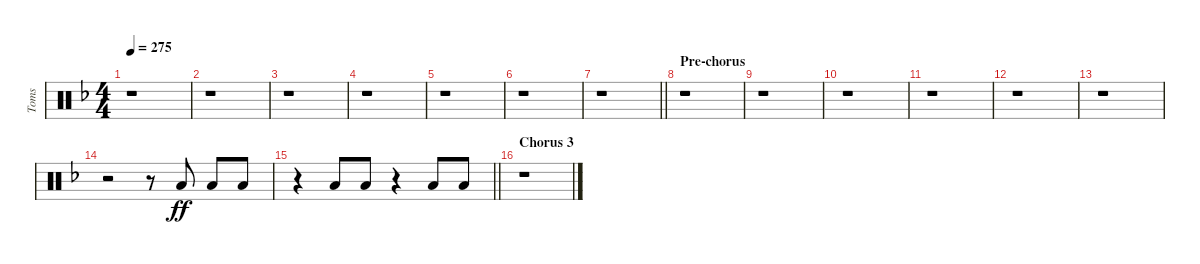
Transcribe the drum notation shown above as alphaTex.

\track ("Toms" "Toms") {instrument percussion}
\staff {score}
\articulation defaults
\ts (4 4)
\tempo 275
\clef neutral
\ks dminor
r.1{dy f} |
r.1 |
r.1 |
r.1 |
r.1 |
r.1 |
\barLineRight lightlight
r.1 |
\section ("" "Pre-chorus")
r.1 |
r.1 |
r.1 |
r.1 |
r.1 |
r.1 |
r.2 r.8{balance 8 beam merge} "Low Tom (hit)".8{dy ff} "Low Tom (hit)".8 "Low Tom (hit)".8 |
\barLineRight lightlight
r.4{beam merge} "Low Tom (hit)".8 "Low Tom (hit)".8 r.4{beam merge} "Low Tom (hit)".8 "Low Tom (hit)".8 |
\section ("" "Chorus 3")
r.1
